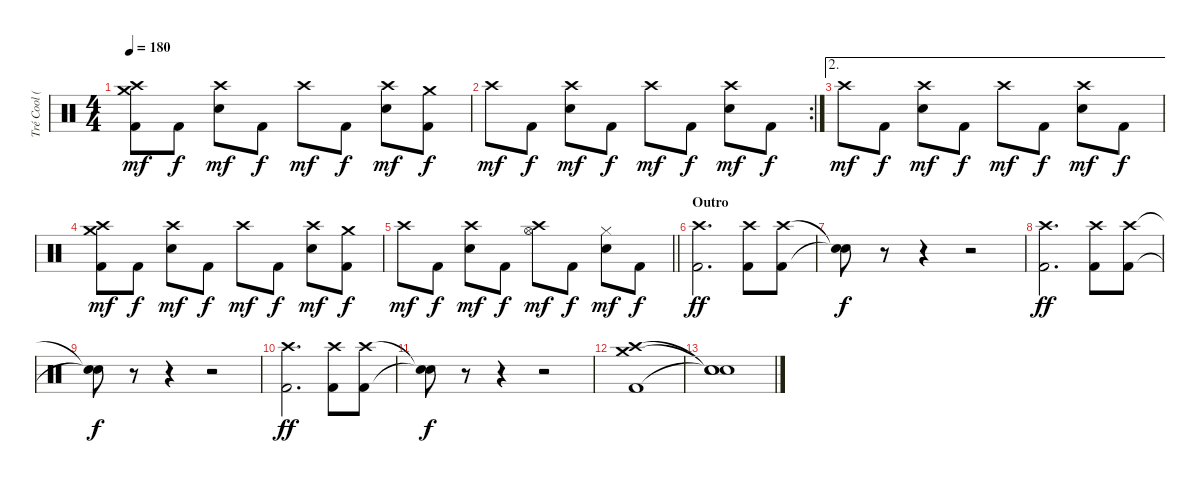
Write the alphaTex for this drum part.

\track ("Tré Cool (Drums)" "Tré Cool (") {instrument percussion}
\staff {score}
\articulation defaults
\ts (4 4)
\tempo 180
\clef neutral
\ks c
("Crash medium (hit)" "Crash high (hit)" "Kick (hit) 2").8{dy mf} "Kick (hit) 2".8{dy f} ("Crash high (hit)" "Electric Snare (hit)").8{dy mf} "Kick (hit) 2".8{dy f} "Crash high (hit)".8{dy mf} "Kick (hit) 2".8{dy f} ("Crash high (hit)" "Electric Snare (hit)").8{dy mf} ("Crash medium (hit)" "Kick (hit) 2").8{dy f} |
\rc 2 "Crash high (hit)".8{dy mf} "Kick (hit) 2".8{dy f}
("Crash high (hit)" "Electric Snare (hit)").8{dy mf} "Kick (hit) 2".8{dy f} "Crash high (hit)".8{dy mf} "Kick (hit) 2".8{dy f} ("Crash high (hit)" "Electric Snare (hit)").8{dy mf} "Kick (hit) 2".8{dy f} |
\ae 2 "Crash high (hit)".8{dy mf} "Kick (hit) 2".8{dy f}
("Crash high (hit)" "Electric Snare (hit)").8{dy mf} "Kick (hit) 2".8{dy f} "Crash high (hit)".8{dy mf} "Kick (hit) 2".8{dy f} ("Crash high (hit)" "Electric Snare (hit)").8{dy mf} "Kick (hit) 2".8{dy f} |
("Crash medium (hit)" "Crash high (hit)" "Kick (hit) 2").8{dy mf} "Kick (hit) 2".8{dy f} ("Crash high (hit)" "Electric Snare (hit)").8{dy mf} "Kick (hit) 2".8{dy f} "Crash high (hit)".8{dy mf} "Kick (hit) 2".8{dy f} ("Crash high (hit)" "Electric Snare (hit)").8{dy mf} ("Crash medium (hit)" "Kick (hit) 2").8{dy f} |
\barLineRight lightlight "Crash high (hit)".8{dy mf} "Kick (hit) 2".8{dy f}
("Crash high (hit)" "Electric Snare (hit)").8{dy mf} "Kick (hit) 2".8{dy f} ("Crash high (hit)" "Hi-Hat (open)").8{dy mf} "Kick (hit) 2".8{dy f} ("Hi-Hat (closed)" "Electric Snare (hit)").8{dy mf} "Kick (hit) 2".8{dy f} |
\section ("" "Outro")
("Crash high (hit)" "Kick (hit) 2").2{d dy ff} ("Crash high (hit)" "Kick (hit) 2").8 ("Crash high (hit)" "Kick (hit) 2").8 |
("Snare (hit)"{t} "Snare (hit)"{t}).8{dy f} r.8{volume 0} r.4{volume 12} r.2 |
("Crash high (hit)" "Kick (hit) 2").2{d dy ff} ("Crash high (hit)" "Kick (hit) 2").8 ("Crash high (hit)" "Kick (hit) 2").8 |
("Snare (hit)"{t} "Snare (hit)"{t}).8{dy f} r.8{volume 0} r.4{volume 12} r.2 |
("Crash high (hit)" "Kick (hit) 2").2{d dy ff} ("Crash high (hit)" "Kick (hit) 2").8 ("Crash high (hit)" "Kick (hit) 2").8 |
("Snare (hit)"{t} "Snare (hit)"{t}).8{dy f} r.8{volume 0} r.4{volume 12} r.2 |
("Crash medium (hit)" "Crash high (hit)" "Kick (hit) 2").1 |
("Snare (hit)"{t} "Snare (hit)"{t} "Snare (hit)"{t}).1
